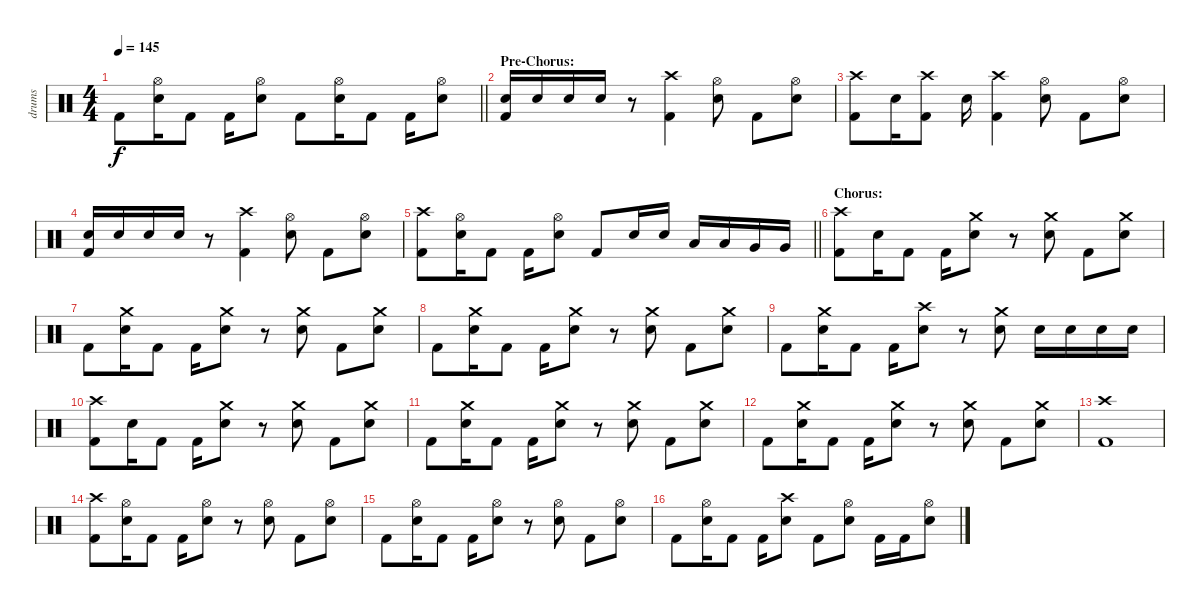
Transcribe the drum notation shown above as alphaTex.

\track ("drums" "drums") {instrument percussion}
\staff {score}
\articulation defaults
\ts (4 4)
\tempo 145
\clef neutral
\barLineRight lightlight
\ks c "Kick (hit) 2".8{dy f}
("Hi-Hat (open)" "Electric Snare (hit)").16 "Kick (hit) 2".8 "Kick (hit) 2".16 ("Hi-Hat (open)" "Electric Snare (hit)").8 "Kick (hit) 2".8 ("Hi-Hat (open)" "Electric Snare (hit)").16 "Kick (hit) 2".8 "Kick (hit) 2".16 ("Hi-Hat (open)" "Electric Snare (hit)").8 |
\section ("" "Pre-Chorus:")
("Electric Snare (hit)" "Kick (hit) 2").16 "Electric Snare (hit)".16 "Electric Snare (hit)".16 "Electric Snare (hit)".16 r.8 ("Crash high (hit)" "Kick (hit) 2").4 ("Hi-Hat (open)" "Electric Snare (hit)").8 "Kick (hit) 2".8 ("Hi-Hat (open)" "Electric Snare (hit)").8 |
("Crash high (hit)" "Kick (hit) 2").8 "Electric Snare (hit)".16 ("Crash high (hit)" "Kick (hit) 2").8 "Electric Snare (hit)".16 ("Crash high (hit)" "Kick (hit) 2").4 ("Hi-Hat (open)" "Electric Snare (hit)").8 "Kick (hit) 2".8 ("Hi-Hat (open)" "Electric Snare (hit)").8 |
("Electric Snare (hit)" "Kick (hit) 2").16 "Electric Snare (hit)".16 "Electric Snare (hit)".16 "Electric Snare (hit)".16 r.8 ("Crash high (hit)" "Kick (hit) 2").4 ("Hi-Hat (open)" "Electric Snare (hit)").8 "Kick (hit) 2".8 ("Hi-Hat (open)" "Electric Snare (hit)").8 |
\barLineRight lightlight
("Crash high (hit)" "Kick (hit) 2").8 ("Hi-Hat (open)" "Electric Snare (hit)").16 "Kick (hit) 2".8 "Kick (hit) 2".16 ("Hi-Hat (open)" "Electric Snare (hit)").8 "Kick (hit) 2".8 "Electric Snare (hit)".16 "Electric Snare (hit)".16 "Low Tom (hit)".16 "Low Tom (hit)".16 "Very Low Tom (hit)".16 "Very Low Tom (hit)".16 |
\section ("" "Chorus:")
("Crash high (hit)" "Kick (hit) 2").8 "Electric Snare (hit)".16 "Kick (hit) 2".8 "Kick (hit) 2".16 ("Crash medium (hit)" "Electric Snare (hit)").8 r.8 ("Crash medium (hit)" "Electric Snare (hit)").8 "Kick (hit) 2".8 ("Crash medium (hit)" "Electric Snare (hit)").8 |
"Kick (hit) 2".8 ("Crash medium (hit)" "Electric Snare (hit)").16 "Kick (hit) 2".8 "Kick (hit) 2".16 ("Crash medium (hit)" "Electric Snare (hit)").8 r.8 ("Crash medium (hit)" "Electric Snare (hit)").8 "Kick (hit) 2".8 ("Crash medium (hit)" "Electric Snare (hit)").8 |
"Kick (hit) 2".8 ("Crash medium (hit)" "Electric Snare (hit)").16 "Kick (hit) 2".8 "Kick (hit) 2".16 ("Crash medium (hit)" "Electric Snare (hit)").8 r.8 ("Crash medium (hit)" "Electric Snare (hit)").8 "Kick (hit) 2".8 ("Crash medium (hit)" "Electric Snare (hit)").8 |
"Kick (hit) 2".8 ("Crash medium (hit)" "Electric Snare (hit)").16 "Kick (hit) 2".8 "Kick (hit) 2".16 ("Crash high (hit)" "Electric Snare (hit)").8 r.8 ("Crash medium (hit)" "Electric Snare (hit)").8 "Electric Snare (hit)".16 "Electric Snare (hit)".16 "Electric Snare (hit)".16 "Electric Snare (hit)".16 |
("Crash high (hit)" "Kick (hit) 2").8 "Electric Snare (hit)".16 "Kick (hit) 2".8 "Kick (hit) 2".16 ("Crash medium (hit)" "Electric Snare (hit)").8 r.8 ("Crash medium (hit)" "Electric Snare (hit)").8 "Kick (hit) 2".8 ("Crash medium (hit)" "Electric Snare (hit)").8 |
"Kick (hit) 2".8 ("Crash medium (hit)" "Electric Snare (hit)").16 "Kick (hit) 2".8 "Kick (hit) 2".16 ("Crash medium (hit)" "Electric Snare (hit)").8 r.8 ("Crash medium (hit)" "Electric Snare (hit)").8 "Kick (hit) 2".8 ("Crash medium (hit)" "Electric Snare (hit)").8 |
"Kick (hit) 2".8 ("Crash medium (hit)" "Electric Snare (hit)").16 "Kick (hit) 2".8 "Kick (hit) 2".16 ("Crash medium (hit)" "Electric Snare (hit)").8 r.8 ("Crash medium (hit)" "Electric Snare (hit)").8 "Kick (hit) 2".8 ("Crash medium (hit)" "Electric Snare (hit)").8 |
("Crash high (hit)" "Kick (hit) 2").1 |
("Crash high (hit)" "Kick (hit) 2").8 ("Hi-Hat (open)" "Electric Snare (hit)").16 "Kick (hit) 2".8 "Kick (hit) 2".16 ("Hi-Hat (open)" "Electric Snare (hit)").8 r.8 ("Hi-Hat (open)" "Electric Snare (hit)").8 "Kick (hit) 2".8 ("Hi-Hat (open)" "Electric Snare (hit)").8 |
"Kick (hit) 2".8 ("Hi-Hat (open)" "Electric Snare (hit)").16 "Kick (hit) 2".8 "Kick (hit) 2".16 ("Hi-Hat (open)" "Electric Snare (hit)").8 r.8 ("Hi-Hat (open)" "Electric Snare (hit)").8 "Kick (hit) 2".8 ("Hi-Hat (open)" "Electric Snare (hit)").8 |
"Kick (hit) 2".8 ("Hi-Hat (open)" "Electric Snare (hit)").16 "Kick (hit) 2".8 "Kick (hit) 2".16 ("Crash high (hit)" "Electric Snare (hit)").8 "Kick (hit) 2".8 ("Hi-Hat (open)" "Electric Snare (hit)").8 "Kick (hit) 2".16 "Kick (hit) 2".16 ("Hi-Hat (open)" "Electric Snare (hit)").8
